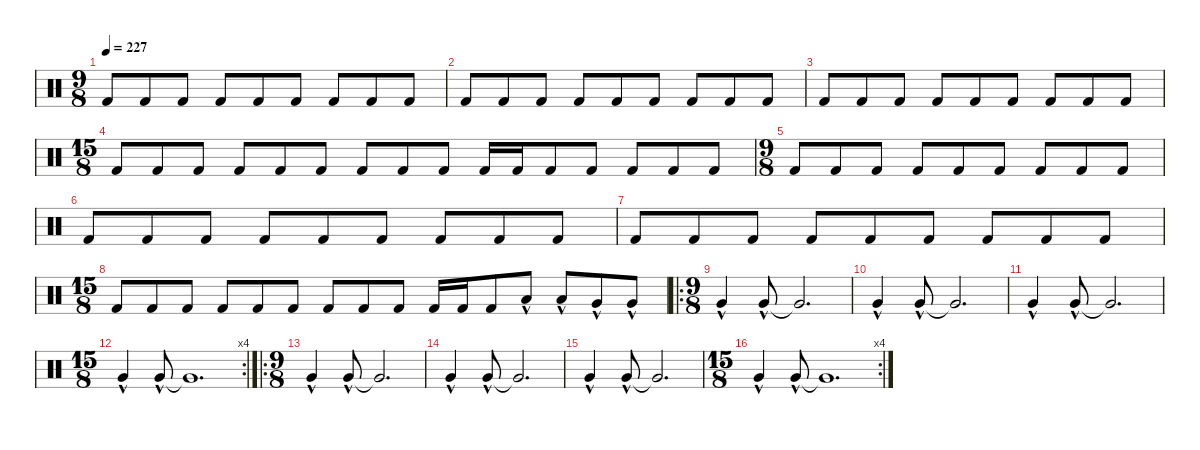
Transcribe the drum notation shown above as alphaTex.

\defaultSystemsLayout 4
\hideDynamics
\bracketExtendMode nobrackets
\singleTrackTrackNamePolicy hidden
\multiTrackTrackNamePolicy hidden
\firstSystemTrackNameMode fullname
\firstSystemTrackNameOrientation horizontal
\otherSystemsTrackNameOrientation horizontal
\track ("Drums [Martin Lopez]" "drm.") {defaultSystemsLayout 4 instrument percussion}
\staff {score}
\articulation defaults
\ts (9 8)
\beaming (8 3 3 3)
\tempo 227
\clef neutral
\ks c "Kick (hit) 2".8{dy f beam Up} "Kick (hit) 2".8{beam Up} "Kick (hit) 2".8{beam Up} "Kick (hit) 2".8{beam Up} "Kick (hit) 2".8{beam Up} "Kick (hit) 2".8{beam Up} "Kick (hit) 2".8{beam Up} "Kick (hit) 2".8{beam Up} "Kick (hit) 2".8{beam Up}
|
"Kick (hit) 2".8{beam Up} "Kick (hit) 2".8{beam Up} "Kick (hit) 2".8{beam Up} "Kick (hit) 2".8{beam Up} "Kick (hit) 2".8{beam Up} "Kick (hit) 2".8{beam Up} "Kick (hit) 2".8{beam Up} "Kick (hit) 2".8{beam Up} "Kick (hit) 2".8{beam Up} |
"Kick (hit) 2".8{beam Up} "Kick (hit) 2".8{beam Up} "Kick (hit) 2".8{beam Up} "Kick (hit) 2".8{beam Up} "Kick (hit) 2".8{beam Up} "Kick (hit) 2".8{beam Up} "Kick (hit) 2".8{beam Up} "Kick (hit) 2".8{beam Up} "Kick (hit) 2".8{beam Up} |
\ts (15 8)
\beaming (8 3 3 3 3 3)
"Kick (hit) 2".8{beam Up} "Kick (hit) 2".8{beam Up} "Kick (hit) 2".8{beam Up} "Kick (hit) 2".8{beam Up} "Kick (hit) 2".8{beam Up} "Kick (hit) 2".8{beam Up} "Kick (hit) 2".8{beam Up} "Kick (hit) 2".8{beam Up} "Kick (hit) 2".8{beam Up} "Kick (hit) 2".16{beam Up} "Kick (hit) 2".16{beam Up} "Kick (hit) 2".8{beam Up} "Kick (hit) 2".8{beam Up} "Kick (hit) 2".8{beam Up} "Kick (hit) 2".8{beam Up} "Kick (hit) 2".8{beam Up} |
\ts (9 8)
\beaming (8 3 3 3)
"Kick (hit) 2".8{beam Up} "Kick (hit) 2".8{beam Up} "Kick (hit) 2".8{beam Up} "Kick (hit) 2".8{beam Up} "Kick (hit) 2".8{beam Up} "Kick (hit) 2".8{beam Up} "Kick (hit) 2".8{beam Up} "Kick (hit) 2".8{beam Up} "Kick (hit) 2".8{beam Up} |
"Kick (hit) 2".8{beam Up} "Kick (hit) 2".8{beam Up} "Kick (hit) 2".8{beam Up} "Kick (hit) 2".8{beam Up} "Kick (hit) 2".8{beam Up} "Kick (hit) 2".8{beam Up} "Kick (hit) 2".8{beam Up} "Kick (hit) 2".8{beam Up} "Kick (hit) 2".8{beam Up} |
"Kick (hit) 2".8{beam Up} "Kick (hit) 2".8{beam Up} "Kick (hit) 2".8{beam Up} "Kick (hit) 2".8{beam Up} "Kick (hit) 2".8{beam Up} "Kick (hit) 2".8{beam Up} "Kick (hit) 2".8{beam Up} "Kick (hit) 2".8{beam Up} "Kick (hit) 2".8{beam Up} |
\ts (15 8)
\beaming (8 3 3 3 3 3)
"Kick (hit) 2".8{beam Up} "Kick (hit) 2".8{beam Up} "Kick (hit) 2".8{beam Up} "Kick (hit) 2".8{beam Up} "Kick (hit) 2".8{beam Up} "Kick (hit) 2".8{beam Up} "Kick (hit) 2".8{beam Up} "Kick (hit) 2".8{beam Up} "Kick (hit) 2".8{beam Up} "Kick (hit) 2".16{beam Up} "Kick (hit) 2".16{beam Up} "Kick (hit) 2".8{beam Up} "Low Tom (hit)"{hac}.8{dy mp beam Up} "Low Tom (hit)"{hac}.8{beam Up} "Very Low Tom (hit)"{hac}.8{beam Up} "Very Low Tom (hit)"{hac}.8{beam Up} |
\ro
\ts (9 8)
\beaming (8 3 2 2 2)
"Very Low Tom (hit)"{hac}.4{beam Up} "Very Low Tom (hit)"{hac}.8{beam Up} "Very Low Tom (hit)"{t}.2{d dy mf beam Up} |
"Very Low Tom (hit)"{hac}.4{dy mp beam Up} "Very Low Tom (hit)"{hac}.8{beam Up} "Very Low Tom (hit)"{t}.2{d dy mf beam Up} |
"Very Low Tom (hit)"{hac}.4{dy mp beam Up} "Very Low Tom (hit)"{hac}.8{beam Up} "Very Low Tom (hit)"{t}.2{d dy mf beam Up} |
\rc 4
\ts (15 8)
\beaming (8 6 3 3 3)
"Very Low Tom (hit)"{hac}.4{dy mp beam Up} "Very Low Tom (hit)"{hac}.8{beam Up} "Very Low Tom (hit)"{t}.1{d dy mf beam Down} |
\ro
\ts (9 8)
\beaming (8 3 2 2 2)
"Very Low Tom (hit)"{hac}.4{dy pp beam Up} "Very Low Tom (hit)"{hac}.8{beam Up} "Very Low Tom (hit)"{t}.2{d dy mf beam Up} |
"Very Low Tom (hit)"{hac}.4{dy pp beam Up} "Very Low Tom (hit)"{hac}.8{beam Up} "Very Low Tom (hit)"{t}.2{d dy mf beam Up} |
"Very Low Tom (hit)"{hac}.4{dy pp beam Up} "Very Low Tom (hit)"{hac}.8{beam Up} "Very Low Tom (hit)"{t}.2{d dy mf beam Up} |
\rc 4
\ts (15 8)
\beaming (8 6 3 3 3)
"Very Low Tom (hit)"{hac}.4{dy pp beam Up} "Very Low Tom (hit)"{hac}.8{beam Up} "Very Low Tom (hit)"{t}.1{d dy mf beam Down}
